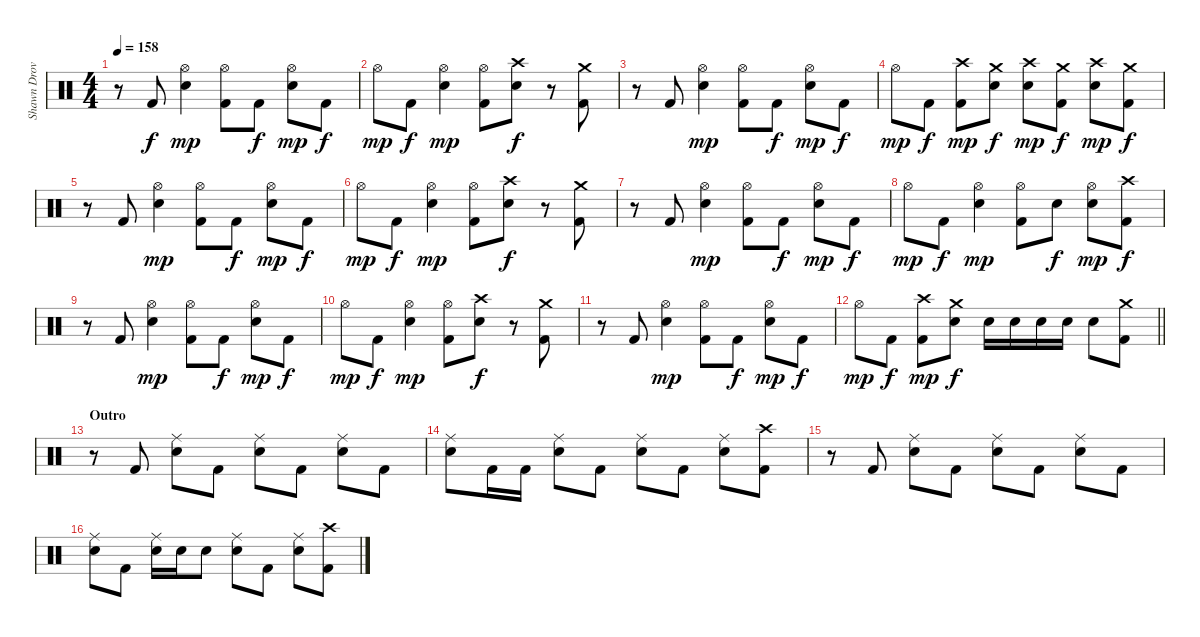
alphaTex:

\track ("Shawn Drover" "Shawn Drov") {instrument percussion}
\staff
\articulation defaults
\ts (4 4)
\tempo 158
\clef neutral
\ks c
r.8{dy f} "Kick (hit) 2".8 ("Hi-Hat (open)" "Snare (hit) 2").4{dy mp} ("Hi-Hat (open)" "Kick (hit) 2").8 "Kick (hit) 2".8{dy f} ("Hi-Hat (open)" "Snare (hit) 2").8{dy mp} "Kick (hit) 2".8{dy f} |
"Hi-Hat (open)".8{dy mp} "Kick (hit) 2".8{dy f} ("Hi-Hat (open)" "Snare (hit) 2").4{dy mp} ("Hi-Hat (open)" "Kick (hit) 2").8 ("Crash high (hit)" "Snare (hit) 2").8{dy f} r.8 ("Crash medium (hit)" "Kick (hit) 2").8 |
r.8 "Kick (hit) 2".8 ("Hi-Hat (open)" "Snare (hit) 2").4{dy mp} ("Hi-Hat (open)" "Kick (hit) 2").8 "Kick (hit) 2".8{dy f} ("Hi-Hat (open)" "Snare (hit) 2").8{dy mp} "Kick (hit) 2".8{dy f} |
"Hi-Hat (open)".8{dy mp} "Kick (hit) 2".8{dy f} ("Crash high (hit)" "Kick (hit) 2").8{dy mp} ("Crash medium (hit)" "Snare (hit) 2").8{dy f} ("Crash high (hit)" "Snare (hit) 2").8{dy mp} ("Crash medium (hit)" "Kick (hit) 2").8{dy f} ("Crash high (hit)" "Snare (hit) 2").8{dy mp} ("Crash medium (hit)" "Kick (hit) 2").8{dy f} |
r.8 "Kick (hit) 2".8 ("Hi-Hat (open)" "Snare (hit) 2").4{dy mp} ("Hi-Hat (open)" "Kick (hit) 2").8 "Kick (hit) 2".8{dy f} ("Hi-Hat (open)" "Snare (hit) 2").8{dy mp} "Kick (hit) 2".8{dy f} |
"Hi-Hat (open)".8{dy mp} "Kick (hit) 2".8{dy f} ("Hi-Hat (open)" "Snare (hit) 2").4{dy mp} ("Hi-Hat (open)" "Kick (hit) 2").8 ("Crash high (hit)" "Snare (hit) 2").8{dy f} r.8 ("Crash medium (hit)" "Kick (hit) 2").8 |
r.8 "Kick (hit) 2".8 ("Hi-Hat (open)" "Snare (hit) 2").4{dy mp} ("Hi-Hat (open)" "Kick (hit) 2").8 "Kick (hit) 2".8{dy f} ("Hi-Hat (open)" "Snare (hit) 2").8{dy mp} "Kick (hit) 2".8{dy f} |
"Hi-Hat (open)".8{dy mp} "Kick (hit) 2".8{dy f} ("Hi-Hat (open)" "Snare (hit) 2").4{dy mp} ("Hi-Hat (open)" "Kick (hit) 2").8 "Snare (hit) 2".8{dy f} ("Hi-Hat (open)" "Snare (hit) 2").8{dy mp} ("Crash high (hit)" "Kick (hit) 2").8{dy f} |
r.8 "Kick (hit) 2".8 ("Hi-Hat (open)" "Snare (hit) 2").4{dy mp} ("Hi-Hat (open)" "Kick (hit) 2").8 "Kick (hit) 2".8{dy f} ("Hi-Hat (open)" "Snare (hit) 2").8{dy mp} "Kick (hit) 2".8{dy f} |
"Hi-Hat (open)".8{dy mp} "Kick (hit) 2".8{dy f} ("Hi-Hat (open)" "Snare (hit) 2").4{dy mp} ("Hi-Hat (open)" "Kick (hit) 2").8 ("Crash high (hit)" "Snare (hit) 2").8{dy f} r.8 ("Crash medium (hit)" "Kick (hit) 2").8 |
r.8 "Kick (hit) 2".8 ("Hi-Hat (open)" "Snare (hit) 2").4{dy mp} ("Hi-Hat (open)" "Kick (hit) 2").8 "Kick (hit) 2".8{dy f} ("Hi-Hat (open)" "Snare (hit) 2").8{dy mp} "Kick (hit) 2".8{dy f} |
\barLineRight lightlight "Hi-Hat (open)".8{dy mp} "Kick (hit) 2".8{dy f}
("Crash high (hit)" "Kick (hit) 2").8{dy mp} ("Crash medium (hit)" "Snare (hit) 2").8{dy f} "Snare (hit) 2".16 "Snare (hit) 2".16 "Snare (hit) 2".16 "Snare (hit) 2".16 "Snare (hit) 2".8 ("Crash medium (hit)" "Kick (hit) 2").8 |
\section ("" "Outro")
r.8 "Kick (hit) 2".8 ("Ride (middle)" "Snare (hit) 2").8 "Kick (hit) 2".8 ("Ride (middle)" "Snare (hit) 2").8 "Kick (hit) 2".8 ("Ride (middle)" "Snare (hit) 2").8 "Kick (hit) 2".8 |
("Ride (middle)" "Snare (hit) 2").8 "Kick (hit) 2".16 "Kick (hit) 2".16 ("Ride (middle)" "Snare (hit) 2").8 "Kick (hit) 2".8 ("Ride (middle)" "Snare (hit) 2").8 "Kick (hit) 2".8 ("Ride (middle)" "Snare (hit) 2").8 ("Crash high (hit)" "Kick (hit) 2").8 |
r.8 "Kick (hit) 2".8 ("Ride (middle)" "Snare (hit) 2").8 "Kick (hit) 2".8 ("Ride (middle)" "Snare (hit) 2").8 "Kick (hit) 2".8 ("Ride (middle)" "Snare (hit) 2").8 "Kick (hit) 2".8 |
("Ride (middle)" "Snare (hit) 2").8 "Kick (hit) 2".8 ("Ride (middle)" "Snare (hit) 2").16 "Snare (hit) 2".16 "Snare (hit) 2".8 ("Ride (middle)" "Snare (hit) 2").8 "Kick (hit) 2".8 ("Ride (middle)" "Snare (hit) 2").8 ("Crash high (hit)" "Kick (hit) 2").8
